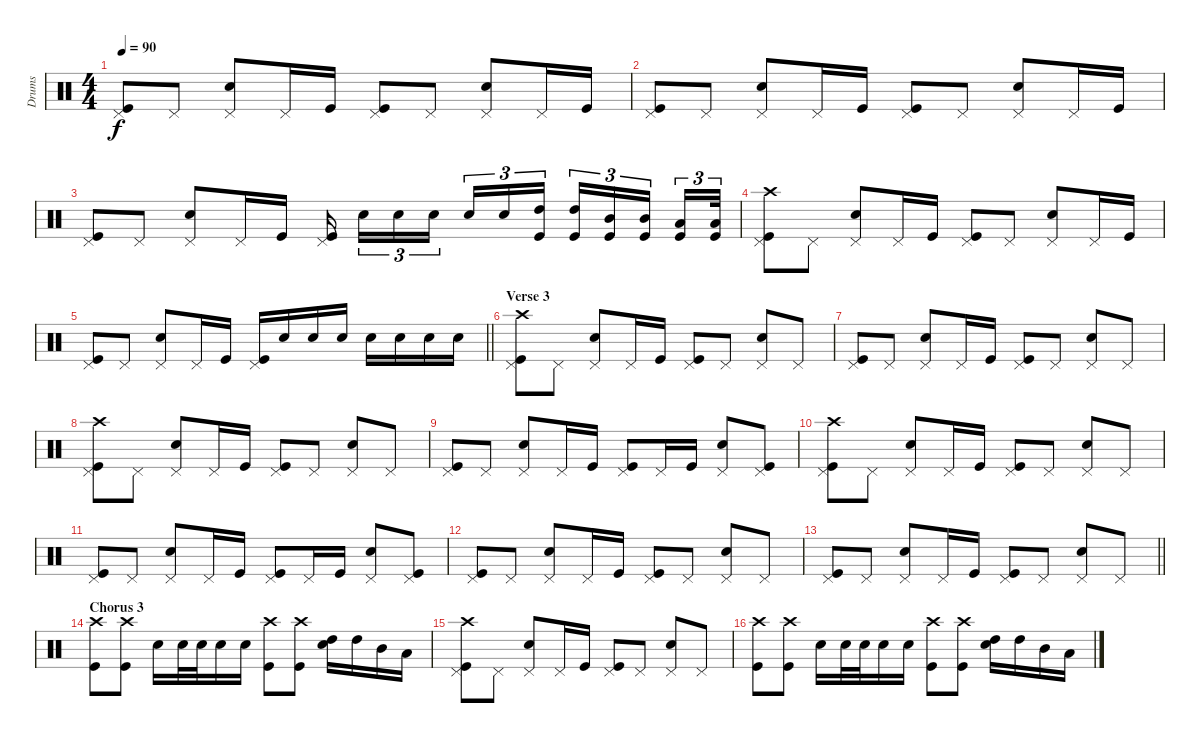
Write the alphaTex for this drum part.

\track ("Drums" "Drums") {instrument percussion}
\staff {score}
\articulation defaults
\ts (4 4)
\tempo 90
\clef neutral
\ks c
("Pedal Hi-Hat (hit)" "Kick (hit)").8{dy f} "Pedal Hi-Hat (hit)".8 ("Pedal Hi-Hat (hit)" "Snare (hit) 2").8 "Pedal Hi-Hat (hit)".16 "Kick (hit)".16 ("Pedal Hi-Hat (hit)" "Kick (hit)").8 "Pedal Hi-Hat (hit)".8 ("Pedal Hi-Hat (hit)" "Snare (hit) 2").8 "Pedal Hi-Hat (hit)".16 "Kick (hit)".16 |
("Pedal Hi-Hat (hit)" "Kick (hit)").8 "Pedal Hi-Hat (hit)".8 ("Pedal Hi-Hat (hit)" "Snare (hit) 2").8 "Pedal Hi-Hat (hit)".16 "Kick (hit)".16 ("Pedal Hi-Hat (hit)" "Kick (hit)").8 "Pedal Hi-Hat (hit)".8 ("Pedal Hi-Hat (hit)" "Snare (hit) 2").8 "Pedal Hi-Hat (hit)".16 "Kick (hit)".16 |
("Pedal Hi-Hat (hit)" "Kick (hit)").8 "Pedal Hi-Hat (hit)".8 ("Pedal Hi-Hat (hit)" "Snare (hit) 2").8 "Pedal Hi-Hat (hit)".16 "Kick (hit)".16 ("Pedal Hi-Hat (hit)" "Kick (hit)").16 "Snare (hit) 2".16{tu (3 2)} "Snare (hit) 2".16{tu (3 2)} "Snare (hit) 2".16{tu (3 2)} "Snare (hit) 2".16{tu (3 2)} "Snare (hit) 2".16{tu (3 2)} ("High Tom (hit)" "Kick (hit)").16{tu (3 2)} ("High Tom (hit)" "Kick (hit)").16{tu (3 2)} ("Mid Tom (hit)" "Kick (hit)").16{tu (3 2)} ("Mid Tom (hit)" "Kick (hit)").16{tu (3 2)} ("Low Tom (hit)" "Kick (hit)").16{tu (3 2)} ("Low Tom (hit)" "Kick (hit)").32{tu (3 2)} |
("Pedal Hi-Hat (hit)" "Kick (hit)" "Crash high (hit)").8 "Pedal Hi-Hat (hit)".8 ("Pedal Hi-Hat (hit)" "Snare (hit) 2").8 "Pedal Hi-Hat (hit)".16 "Kick (hit)".16 ("Pedal Hi-Hat (hit)" "Kick (hit)").8 "Pedal Hi-Hat (hit)".8 ("Pedal Hi-Hat (hit)" "Snare (hit) 2").8 "Pedal Hi-Hat (hit)".16 "Kick (hit)".16 |
\barLineRight lightlight
("Pedal Hi-Hat (hit)" "Kick (hit)").8 "Pedal Hi-Hat (hit)".8 ("Pedal Hi-Hat (hit)" "Snare (hit) 2").8 "Pedal Hi-Hat (hit)".16 "Kick (hit)".16 ("Pedal Hi-Hat (hit)" "Kick (hit)").16 "Snare (hit) 2".16 "Snare (hit) 2".16 "Snare (hit) 2".16 "Snare (hit) 2".16 "Snare (hit) 2".16 "Snare (hit) 2".16 "Snare (hit) 2".16 |
\section ("" "Verse 3")
("Pedal Hi-Hat (hit)" "Kick (hit)" "Crash high (hit)").8 "Pedal Hi-Hat (hit)".8 ("Pedal Hi-Hat (hit)" "Snare (hit) 2").8 "Pedal Hi-Hat (hit)".16 "Kick (hit)".16 ("Pedal Hi-Hat (hit)" "Kick (hit)").8 "Pedal Hi-Hat (hit)".8 ("Pedal Hi-Hat (hit)" "Snare (hit) 2").8 "Pedal Hi-Hat (hit)".8 |
("Pedal Hi-Hat (hit)" "Kick (hit)").8 "Pedal Hi-Hat (hit)".8 ("Pedal Hi-Hat (hit)" "Snare (hit) 2").8 "Pedal Hi-Hat (hit)".16 "Kick (hit)".16 ("Pedal Hi-Hat (hit)" "Kick (hit)").8 "Pedal Hi-Hat (hit)".8 ("Pedal Hi-Hat (hit)" "Snare (hit) 2").8 "Pedal Hi-Hat (hit)".8 |
("Pedal Hi-Hat (hit)" "Kick (hit)" "Crash high (hit)").8 "Pedal Hi-Hat (hit)".8 ("Pedal Hi-Hat (hit)" "Snare (hit) 2").8 "Pedal Hi-Hat (hit)".16 "Kick (hit)".16 ("Pedal Hi-Hat (hit)" "Kick (hit)").8 "Pedal Hi-Hat (hit)".8 ("Pedal Hi-Hat (hit)" "Snare (hit) 2").8 "Pedal Hi-Hat (hit)".8 |
("Pedal Hi-Hat (hit)" "Kick (hit)").8 "Pedal Hi-Hat (hit)".8 ("Pedal Hi-Hat (hit)" "Snare (hit) 2").8 "Pedal Hi-Hat (hit)".16 "Kick (hit)".16 ("Pedal Hi-Hat (hit)" "Kick (hit)").8 "Pedal Hi-Hat (hit)".16 "Kick (hit)".16 ("Pedal Hi-Hat (hit)" "Snare (hit) 2").8 ("Pedal Hi-Hat (hit)" "Kick (hit)").8 |
("Pedal Hi-Hat (hit)" "Kick (hit)" "Crash high (hit)").8 "Pedal Hi-Hat (hit)".8 ("Pedal Hi-Hat (hit)" "Snare (hit) 2").8 "Pedal Hi-Hat (hit)".16 "Kick (hit)".16 ("Pedal Hi-Hat (hit)" "Kick (hit)").8 "Pedal Hi-Hat (hit)".8 ("Pedal Hi-Hat (hit)" "Snare (hit) 2").8 "Pedal Hi-Hat (hit)".8 |
("Pedal Hi-Hat (hit)" "Kick (hit)").8 "Pedal Hi-Hat (hit)".8 ("Pedal Hi-Hat (hit)" "Snare (hit) 2").8 "Pedal Hi-Hat (hit)".16 "Kick (hit)".16 ("Pedal Hi-Hat (hit)" "Kick (hit)").8 "Pedal Hi-Hat (hit)".16 "Kick (hit)".16 ("Pedal Hi-Hat (hit)" "Snare (hit) 2").8 ("Pedal Hi-Hat (hit)" "Kick (hit)").8 |
("Pedal Hi-Hat (hit)" "Kick (hit)").8 "Pedal Hi-Hat (hit)".8 ("Pedal Hi-Hat (hit)" "Snare (hit) 2").8 "Pedal Hi-Hat (hit)".16 "Kick (hit)".16 ("Pedal Hi-Hat (hit)" "Kick (hit)").8 "Pedal Hi-Hat (hit)".8 ("Pedal Hi-Hat (hit)" "Snare (hit) 2").8 "Pedal Hi-Hat (hit)".8 |
\barLineRight lightlight
("Pedal Hi-Hat (hit)" "Kick (hit)").8 "Pedal Hi-Hat (hit)".8 ("Pedal Hi-Hat (hit)" "Snare (hit) 2").8 "Pedal Hi-Hat (hit)".16 "Kick (hit)".16 ("Pedal Hi-Hat (hit)" "Kick (hit)").8 "Pedal Hi-Hat (hit)".8 ("Pedal Hi-Hat (hit)" "Snare (hit) 2").8 "Pedal Hi-Hat (hit)".8 |
\section ("" "Chorus 3")
("Kick (hit)" "Crash high (hit)").8 ("Kick (hit)" "Crash high (hit)").8 "Snare (hit) 2".16 "Snare (hit) 2".32 "Snare (hit) 2".32 "Snare (hit) 2".16 "Snare (hit) 2".16 ("Kick (hit)" "Crash high (hit)").8 ("Kick (hit)" "Crash high (hit)").8 ("Snare (hit) 2" "High Tom (hit)").16 "High Tom (hit)".16 "Mid Tom (hit)".16 "Low Tom (hit)".16 |
("Pedal Hi-Hat (hit)" "Kick (hit)" "Crash high (hit)").8 "Pedal Hi-Hat (hit)".8 ("Pedal Hi-Hat (hit)" "Snare (hit) 2").8 "Pedal Hi-Hat (hit)".16 "Kick (hit)".16 ("Pedal Hi-Hat (hit)" "Kick (hit)").8 "Pedal Hi-Hat (hit)".8 ("Pedal Hi-Hat (hit)" "Snare (hit) 2").8 "Pedal Hi-Hat (hit)".8 |
("Kick (hit)" "Crash high (hit)").8 ("Kick (hit)" "Crash high (hit)").8 "Snare (hit) 2".16 "Snare (hit) 2".32 "Snare (hit) 2".32 "Snare (hit) 2".16 "Snare (hit) 2".16 ("Kick (hit)" "Crash high (hit)").8 ("Kick (hit)" "Crash high (hit)").8 ("Snare (hit) 2" "High Tom (hit)").16 "High Tom (hit)".16 "Mid Tom (hit)".16 "Low Tom (hit)".16
